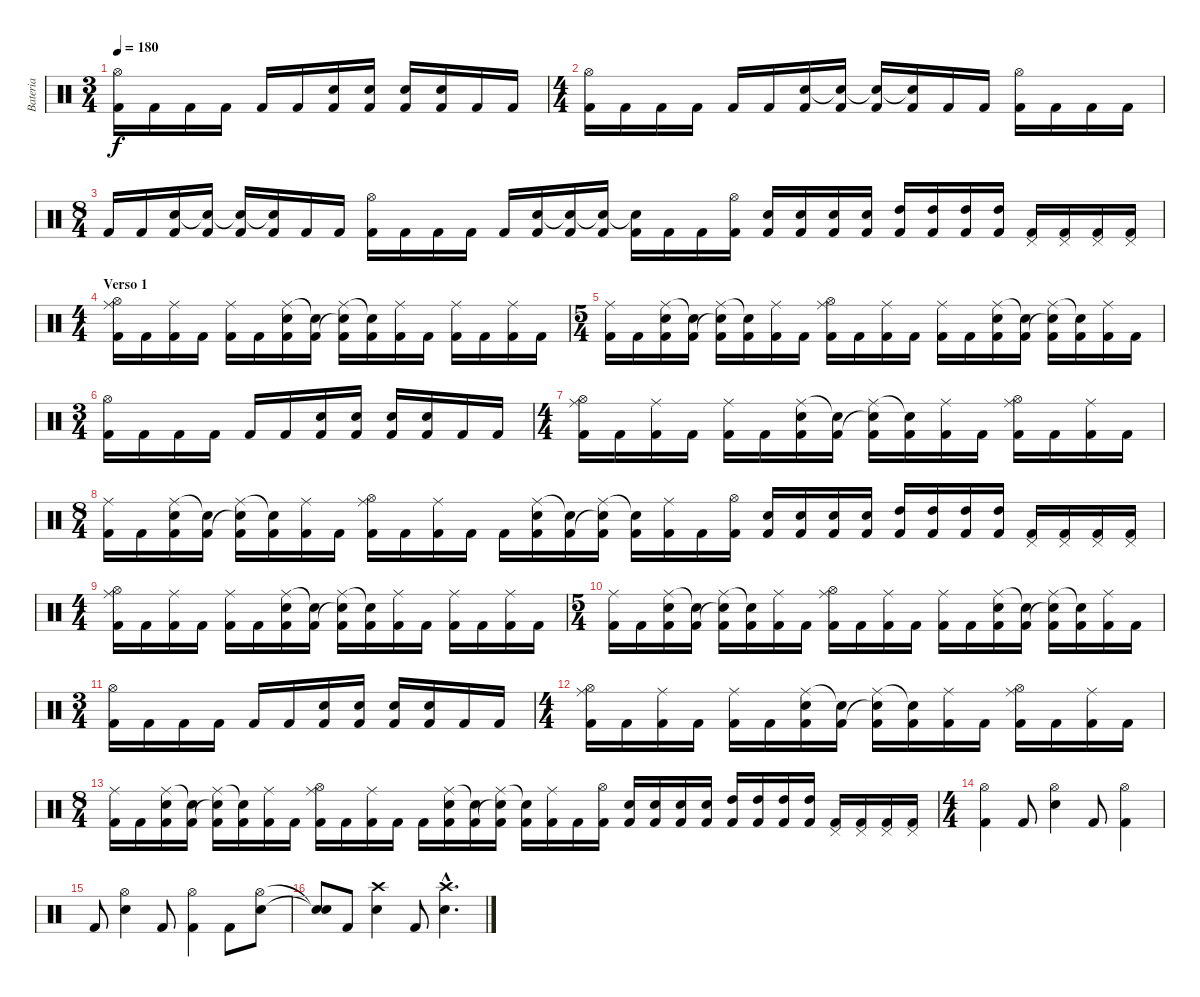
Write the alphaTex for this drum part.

\track ("Bateria" "Bateria") {instrument percussion}
\staff {score}
\articulation defaults
\ts (3 4)
\tempo 180
\clef neutral
\ks c
("Hi-Hat (open)" "Kick (hit) 2").16{dy f} "Kick (hit) 2".16 "Kick (hit) 2".16 "Kick (hit) 2".16 "Kick (hit) 2".16 "Kick (hit) 2".16 ("Electric Snare (hit)" "Kick (hit) 2").16 ("Electric Snare (hit)" "Kick (hit) 2").16 ("Electric Snare (hit)" "Kick (hit) 2").16 ("Electric Snare (hit)" "Kick (hit) 2").16 "Kick (hit) 2".16 "Kick (hit) 2".16 |
\ts (4 4)
("Hi-Hat (open)" "Kick (hit) 2").16 "Kick (hit) 2".16 "Kick (hit) 2".16 "Kick (hit) 2".16 "Kick (hit) 2".16 "Kick (hit) 2".16 ("Electric Snare (hit)" "Kick (hit) 2").16 ("Snare (hit)"{t} "Kick (hit) 2").16 ("Snare (hit)"{t} "Kick (hit) 2").16 ("Snare (hit)"{t} "Kick (hit) 2").16 "Kick (hit) 2".16 "Kick (hit) 2".16 ("Hi-Hat (open)" "Kick (hit) 2").16 "Kick (hit) 2".16 "Kick (hit) 2".16 "Kick (hit) 2".16 |
\ts (8 4)
"Kick (hit) 2".16 "Kick (hit) 2".16 ("Electric Snare (hit)" "Kick (hit) 2").16 ("Snare (hit)"{t} "Kick (hit) 2").16 ("Snare (hit)"{t} "Kick (hit) 2").16 ("Snare (hit)"{t} "Kick (hit) 2").16 "Kick (hit) 2".16 "Kick (hit) 2".16 ("Hi-Hat (open)" "Kick (hit) 2").16 "Kick (hit) 2".16 "Kick (hit) 2".16 "Kick (hit) 2".16 "Kick (hit) 2".16 ("Electric Snare (hit)" "Kick (hit) 2").16 ("Snare (hit)"{t} "Kick (hit) 2").16 ("Snare (hit)"{t} "Kick (hit) 2").16 ("Snare (hit)"{t} "Kick (hit) 2").16 "Kick (hit) 2".16 "Kick (hit) 2".16 ("Hi-Hat (open)" "Kick (hit) 2").16 ("Electric Snare (hit)" "Kick (hit) 2").16 ("Electric Snare (hit)" "Kick (hit) 2").16 ("Electric Snare (hit)" "Kick (hit) 2").16 ("Electric Snare (hit)" "Kick (hit) 2").16 ("High Tom (hit)" "Kick (hit) 2").16 ("High Tom (hit)" "Kick (hit) 2").16 ("High Tom (hit)" "Kick (hit) 2").16 ("High Tom (hit)" "Kick (hit) 2").16 ("Pedal Hi-Hat (hit)" "Kick (hit) 2").16 ("Pedal Hi-Hat (hit)" "Kick (hit) 2").16 ("Pedal Hi-Hat (hit)" "Kick (hit) 2").16 ("Pedal Hi-Hat (hit)" "Kick (hit) 2").16 |
\ts (4 4)
\section ("" "Verso 1")
("Hi-Hat (open)" "Ride (middle)" "Kick (hit) 2").16 "Kick (hit) 2".16 ("Ride (middle)" "Kick (hit) 2").16 "Kick (hit) 2".16 ("Ride (middle)" "Kick (hit) 2").16 "Kick (hit) 2".16 ("Ride (middle)" "Electric Snare (hit)" "Kick (hit) 2").16 ("Snare (hit)"{t} "Kick (hit) 2").16 ("Ride (middle)" "Electric Snare (hit)"{t} "Kick (hit) 2").16 ("Snare (hit)"{t} "Kick (hit) 2").16 ("Ride (middle)" "Kick (hit) 2").16 "Kick (hit) 2".16 ("Ride (middle)" "Kick (hit) 2").16 "Kick (hit) 2".16 ("Ride (middle)" "Kick (hit) 2").16 "Kick (hit) 2".16 |
\ts (5 4)
("Ride (middle)" "Kick (hit) 2").16 "Kick (hit) 2".16 ("Ride (middle)" "Electric Snare (hit)" "Kick (hit) 2").16 ("Snare (hit)"{t} "Kick (hit) 2").16 ("Ride (middle)" "Snare (hit)"{t} "Kick (hit) 2").16 ("Snare (hit)"{t} "Kick (hit) 2").16 ("Ride (middle)" "Kick (hit) 2").16 "Kick (hit) 2".16 ("Hi-Hat (open)" "Ride (middle)" "Kick (hit) 2").16 "Kick (hit) 2".16 ("Ride (middle)" "Kick (hit) 2").16 "Kick (hit) 2".16 ("Ride (middle)" "Kick (hit) 2").16 "Kick (hit) 2".16 ("Ride (middle)" "Electric Snare (hit)" "Kick (hit) 2").16 ("Snare (hit)"{t} "Kick (hit) 2").16 ("Ride (middle)" "Snare (hit)"{t} "Kick (hit) 2").16 ("Snare (hit)"{t} "Kick (hit) 2").16 ("Ride (middle)" "Kick (hit) 2").16 "Kick (hit) 2".16 |
\ts (3 4)
("Hi-Hat (open)" "Kick (hit) 2").16 "Kick (hit) 2".16 "Kick (hit) 2".16 "Kick (hit) 2".16 "Kick (hit) 2".16 "Kick (hit) 2".16 ("Electric Snare (hit)" "Kick (hit) 2").16 ("Electric Snare (hit)" "Kick (hit) 2").16 ("Electric Snare (hit)" "Kick (hit) 2").16 ("Electric Snare (hit)" "Kick (hit) 2").16 "Kick (hit) 2".16 "Kick (hit) 2".16 |
\ts (4 4)
("Hi-Hat (open)" "Ride (middle)" "Kick (hit) 2").16 "Kick (hit) 2".16 ("Ride (middle)" "Kick (hit) 2").16 "Kick (hit) 2".16 ("Ride (middle)" "Kick (hit) 2").16 "Kick (hit) 2".16 ("Ride (middle)" "Electric Snare (hit)" "Kick (hit) 2").16 ("Snare (hit)"{t} "Kick (hit) 2").16 ("Ride (middle)" "Snare (hit)"{t} "Kick (hit) 2").16 ("Snare (hit)"{t} "Kick (hit) 2").16 ("Ride (middle)" "Kick (hit) 2").16 "Kick (hit) 2".16 ("Hi-Hat (open)" "Ride (middle)" "Kick (hit) 2").16 "Kick (hit) 2".16 ("Ride (middle)" "Kick (hit) 2").16 "Kick (hit) 2".16 |
\ts (8 4)
("Ride (middle)" "Kick (hit) 2").16 "Kick (hit) 2".16 ("Ride (middle)" "Electric Snare (hit)" "Kick (hit) 2").16 ("Snare (hit)"{t} "Kick (hit) 2").16 ("Ride (middle)" "Snare (hit)"{t} "Kick (hit) 2").16 ("Snare (hit)"{t} "Kick (hit) 2").16 ("Ride (middle)" "Kick (hit) 2").16 "Kick (hit) 2".16 ("Hi-Hat (open)" "Ride (middle)" "Kick (hit) 2").16 "Kick (hit) 2".16 ("Ride (middle)" "Kick (hit) 2").16 "Kick (hit) 2".16 "Kick (hit) 2".16 ("Ride (middle)" "Electric Snare (hit)" "Kick (hit) 2").16 ("Snare (hit)"{t} "Kick (hit) 2").16 ("Ride (middle)" "Snare (hit)"{t} "Kick (hit) 2").16 ("Snare (hit)"{t} "Kick (hit) 2").16 ("Ride (middle)" "Kick (hit) 2").16 "Kick (hit) 2".16 ("Hi-Hat (open)" "Kick (hit) 2").16 ("Electric Snare (hit)" "Kick (hit) 2").16 ("Electric Snare (hit)" "Kick (hit) 2").16 ("Electric Snare (hit)" "Kick (hit) 2").16 ("Electric Snare (hit)" "Kick (hit) 2").16 ("High Tom (hit)" "Kick (hit) 2").16 ("High Tom (hit)" "Kick (hit) 2").16 ("High Tom (hit)" "Kick (hit) 2").16 ("High Tom (hit)" "Kick (hit) 2").16 ("Pedal Hi-Hat (hit)" "Kick (hit) 2").16 ("Pedal Hi-Hat (hit)" "Kick (hit) 2").16 ("Pedal Hi-Hat (hit)" "Kick (hit) 2").16 ("Pedal Hi-Hat (hit)" "Kick (hit) 2").16 |
\ts (4 4)
("Hi-Hat (open)" "Ride (middle)" "Kick (hit) 2").16 "Kick (hit) 2".16 ("Ride (middle)" "Kick (hit) 2").16 "Kick (hit) 2".16 ("Ride (middle)" "Kick (hit) 2").16 "Kick (hit) 2".16 ("Ride (middle)" "Electric Snare (hit)" "Kick (hit) 2").16 ("Snare (hit)"{t} "Kick (hit) 2").16 ("Ride (middle)" "Electric Snare (hit)"{t} "Kick (hit) 2").16 ("Snare (hit)"{t} "Kick (hit) 2").16 ("Ride (middle)" "Kick (hit) 2").16 "Kick (hit) 2".16 ("Ride (middle)" "Kick (hit) 2").16 "Kick (hit) 2".16 ("Ride (middle)" "Kick (hit) 2").16 "Kick (hit) 2".16 |
\ts (5 4)
("Ride (middle)" "Kick (hit) 2").16 "Kick (hit) 2".16 ("Ride (middle)" "Electric Snare (hit)" "Kick (hit) 2").16 ("Snare (hit)"{t} "Kick (hit) 2").16 ("Ride (middle)" "Snare (hit)"{t} "Kick (hit) 2").16 ("Snare (hit)"{t} "Kick (hit) 2").16 ("Ride (middle)" "Kick (hit) 2").16 "Kick (hit) 2".16 ("Hi-Hat (open)" "Ride (middle)" "Kick (hit) 2").16 "Kick (hit) 2".16 ("Ride (middle)" "Kick (hit) 2").16 "Kick (hit) 2".16 ("Ride (middle)" "Kick (hit) 2").16 "Kick (hit) 2".16 ("Ride (middle)" "Electric Snare (hit)" "Kick (hit) 2").16 ("Snare (hit)"{t} "Kick (hit) 2").16 ("Ride (middle)" "Snare (hit)"{t} "Kick (hit) 2").16 ("Snare (hit)"{t} "Kick (hit) 2").16 ("Ride (middle)" "Kick (hit) 2").16 "Kick (hit) 2".16 |
\ts (3 4)
("Hi-Hat (open)" "Kick (hit) 2").16 "Kick (hit) 2".16 "Kick (hit) 2".16 "Kick (hit) 2".16 "Kick (hit) 2".16 "Kick (hit) 2".16 ("Electric Snare (hit)" "Kick (hit) 2").16 ("Electric Snare (hit)" "Kick (hit) 2").16 ("Electric Snare (hit)" "Kick (hit) 2").16 ("Electric Snare (hit)" "Kick (hit) 2").16 "Kick (hit) 2".16 "Kick (hit) 2".16 |
\ts (4 4)
("Hi-Hat (open)" "Ride (middle)" "Kick (hit) 2").16 "Kick (hit) 2".16 ("Ride (middle)" "Kick (hit) 2").16 "Kick (hit) 2".16 ("Ride (middle)" "Kick (hit) 2").16 "Kick (hit) 2".16 ("Ride (middle)" "Electric Snare (hit)" "Kick (hit) 2").16 ("Snare (hit)"{t} "Kick (hit) 2").16 ("Ride (middle)" "Snare (hit)"{t} "Kick (hit) 2").16 ("Snare (hit)"{t} "Kick (hit) 2").16 ("Ride (middle)" "Kick (hit) 2").16 "Kick (hit) 2".16 ("Hi-Hat (open)" "Ride (middle)" "Kick (hit) 2").16 "Kick (hit) 2".16 ("Ride (middle)" "Kick (hit) 2").16 "Kick (hit) 2".16 |
\ts (8 4)
("Ride (middle)" "Kick (hit) 2").16 "Kick (hit) 2".16 ("Ride (middle)" "Electric Snare (hit)" "Kick (hit) 2").16 ("Snare (hit)"{t} "Kick (hit) 2").16 ("Ride (middle)" "Snare (hit)"{t} "Kick (hit) 2").16 ("Snare (hit)"{t} "Kick (hit) 2").16 ("Ride (middle)" "Kick (hit) 2").16 "Kick (hit) 2".16 ("Hi-Hat (open)" "Ride (middle)" "Kick (hit) 2").16 "Kick (hit) 2".16 ("Ride (middle)" "Kick (hit) 2").16 "Kick (hit) 2".16 "Kick (hit) 2".16 ("Ride (middle)" "Electric Snare (hit)" "Kick (hit) 2").16 ("Snare (hit)"{t} "Kick (hit) 2").16 ("Ride (middle)" "Snare (hit)"{t} "Kick (hit) 2").16 ("Snare (hit)"{t} "Kick (hit) 2").16 ("Ride (middle)" "Kick (hit) 2").16 "Kick (hit) 2".16 ("Hi-Hat (open)" "Kick (hit) 2").16 ("Electric Snare (hit)" "Kick (hit) 2").16 ("Electric Snare (hit)" "Kick (hit) 2").16 ("Electric Snare (hit)" "Kick (hit) 2").16 ("Electric Snare (hit)" "Kick (hit) 2").16 ("High Tom (hit)" "Kick (hit) 2").16 ("High Tom (hit)" "Kick (hit) 2").16 ("High Tom (hit)" "Kick (hit) 2").16 ("High Tom (hit)" "Kick (hit) 2").16 ("Pedal Hi-Hat (hit)" "Kick (hit) 2").16 ("Pedal Hi-Hat (hit)" "Kick (hit) 2").16 ("Pedal Hi-Hat (hit)" "Kick (hit) 2").16 ("Pedal Hi-Hat (hit)" "Kick (hit) 2").16 |
\ts (4 4)
("Hi-Hat (open)" "Kick (hit) 2").4 "Kick (hit) 2".8 ("Hi-Hat (open)" "Electric Snare (hit)").4 "Kick (hit) 2".8 ("Hi-Hat (open)" "Kick (hit) 2").4 |
"Kick (hit) 2".8 ("Hi-Hat (open)" "Electric Snare (hit)").4 "Kick (hit) 2".8 ("Hi-Hat (open)" "Kick (hit) 2").4 "Kick (hit) 2".8 ("Hi-Hat (open)" "Electric Snare (hit)").8 |
("Snare (hit)"{t} "Snare (hit)"{t}).8 "Kick (hit) 2".8 ("Crash high (hit)" "Electric Snare (hit)").4 "Kick (hit) 2".8 ("Crash high (hit)"{hac} "Electric Snare (hit)"{hac}).4{d}
